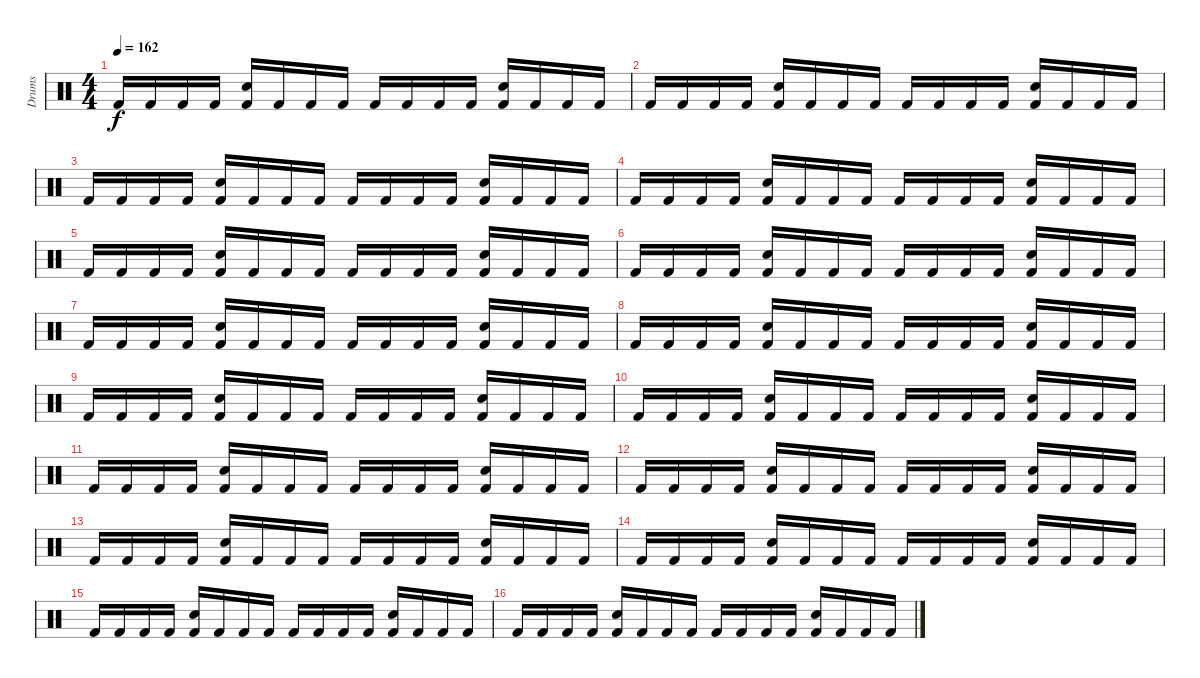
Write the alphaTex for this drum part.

\track ("Drums" "Drums") {instrument percussion}
\staff {score}
\articulation defaults
\ts (4 4)
\tempo 162
\clef neutral
\ks c "Kick (hit) 2".16{dy f} "Kick (hit) 2".16 "Kick (hit) 2".16 "Kick (hit) 2".16
("Electric Snare (hit)" "Kick (hit) 2").16 "Kick (hit) 2".16 "Kick (hit) 2".16 "Kick (hit) 2".16 "Kick (hit) 2".16 "Kick (hit) 2".16 "Kick (hit) 2".16 "Kick (hit) 2".16 ("Electric Snare (hit)" "Kick (hit) 2").16 "Kick (hit) 2".16 "Kick (hit) 2".16 "Kick (hit) 2".16 |
"Kick (hit) 2".16 "Kick (hit) 2".16 "Kick (hit) 2".16 "Kick (hit) 2".16 ("Electric Snare (hit)" "Kick (hit) 2").16 "Kick (hit) 2".16 "Kick (hit) 2".16 "Kick (hit) 2".16 "Kick (hit) 2".16 "Kick (hit) 2".16 "Kick (hit) 2".16 "Kick (hit) 2".16 ("Electric Snare (hit)" "Kick (hit) 2").16 "Kick (hit) 2".16 "Kick (hit) 2".16 "Kick (hit) 2".16 |
"Kick (hit) 2".16 "Kick (hit) 2".16 "Kick (hit) 2".16 "Kick (hit) 2".16 ("Electric Snare (hit)" "Kick (hit) 2").16 "Kick (hit) 2".16 "Kick (hit) 2".16 "Kick (hit) 2".16 "Kick (hit) 2".16 "Kick (hit) 2".16 "Kick (hit) 2".16 "Kick (hit) 2".16 ("Electric Snare (hit)" "Kick (hit) 2").16 "Kick (hit) 2".16 "Kick (hit) 2".16 "Kick (hit) 2".16 |
"Kick (hit) 2".16 "Kick (hit) 2".16 "Kick (hit) 2".16 "Kick (hit) 2".16 ("Electric Snare (hit)" "Kick (hit) 2").16 "Kick (hit) 2".16 "Kick (hit) 2".16 "Kick (hit) 2".16 "Kick (hit) 2".16 "Kick (hit) 2".16 "Kick (hit) 2".16 "Kick (hit) 2".16 ("Electric Snare (hit)" "Kick (hit) 2").16 "Kick (hit) 2".16 "Kick (hit) 2".16 "Kick (hit) 2".16 |
"Kick (hit) 2".16 "Kick (hit) 2".16 "Kick (hit) 2".16 "Kick (hit) 2".16 ("Electric Snare (hit)" "Kick (hit) 2").16 "Kick (hit) 2".16 "Kick (hit) 2".16 "Kick (hit) 2".16 "Kick (hit) 2".16 "Kick (hit) 2".16 "Kick (hit) 2".16 "Kick (hit) 2".16 ("Electric Snare (hit)" "Kick (hit) 2").16 "Kick (hit) 2".16 "Kick (hit) 2".16 "Kick (hit) 2".16 |
"Kick (hit) 2".16 "Kick (hit) 2".16 "Kick (hit) 2".16 "Kick (hit) 2".16 ("Electric Snare (hit)" "Kick (hit) 2").16 "Kick (hit) 2".16 "Kick (hit) 2".16 "Kick (hit) 2".16 "Kick (hit) 2".16 "Kick (hit) 2".16 "Kick (hit) 2".16 "Kick (hit) 2".16 ("Electric Snare (hit)" "Kick (hit) 2").16 "Kick (hit) 2".16 "Kick (hit) 2".16 "Kick (hit) 2".16 |
"Kick (hit) 2".16 "Kick (hit) 2".16 "Kick (hit) 2".16 "Kick (hit) 2".16 ("Electric Snare (hit)" "Kick (hit) 2").16 "Kick (hit) 2".16 "Kick (hit) 2".16 "Kick (hit) 2".16 "Kick (hit) 2".16 "Kick (hit) 2".16 "Kick (hit) 2".16 "Kick (hit) 2".16 ("Electric Snare (hit)" "Kick (hit) 2").16 "Kick (hit) 2".16 "Kick (hit) 2".16 "Kick (hit) 2".16 |
"Kick (hit) 2".16 "Kick (hit) 2".16 "Kick (hit) 2".16 "Kick (hit) 2".16 ("Electric Snare (hit)" "Kick (hit) 2").16 "Kick (hit) 2".16 "Kick (hit) 2".16 "Kick (hit) 2".16 "Kick (hit) 2".16 "Kick (hit) 2".16 "Kick (hit) 2".16 "Kick (hit) 2".16 ("Electric Snare (hit)" "Kick (hit) 2").16 "Kick (hit) 2".16 "Kick (hit) 2".16 "Kick (hit) 2".16 |
"Kick (hit) 2".16 "Kick (hit) 2".16 "Kick (hit) 2".16 "Kick (hit) 2".16 ("Electric Snare (hit)" "Kick (hit) 2").16 "Kick (hit) 2".16 "Kick (hit) 2".16 "Kick (hit) 2".16 "Kick (hit) 2".16 "Kick (hit) 2".16 "Kick (hit) 2".16 "Kick (hit) 2".16 ("Electric Snare (hit)" "Kick (hit) 2").16 "Kick (hit) 2".16 "Kick (hit) 2".16 "Kick (hit) 2".16 |
"Kick (hit) 2".16 "Kick (hit) 2".16 "Kick (hit) 2".16 "Kick (hit) 2".16 ("Electric Snare (hit)" "Kick (hit) 2").16 "Kick (hit) 2".16 "Kick (hit) 2".16 "Kick (hit) 2".16 "Kick (hit) 2".16 "Kick (hit) 2".16 "Kick (hit) 2".16 "Kick (hit) 2".16 ("Electric Snare (hit)" "Kick (hit) 2").16 "Kick (hit) 2".16 "Kick (hit) 2".16 "Kick (hit) 2".16 |
"Kick (hit) 2".16 "Kick (hit) 2".16 "Kick (hit) 2".16 "Kick (hit) 2".16 ("Electric Snare (hit)" "Kick (hit) 2").16 "Kick (hit) 2".16 "Kick (hit) 2".16 "Kick (hit) 2".16 "Kick (hit) 2".16 "Kick (hit) 2".16 "Kick (hit) 2".16 "Kick (hit) 2".16 ("Electric Snare (hit)" "Kick (hit) 2").16 "Kick (hit) 2".16 "Kick (hit) 2".16 "Kick (hit) 2".16 |
"Kick (hit) 2".16 "Kick (hit) 2".16 "Kick (hit) 2".16 "Kick (hit) 2".16 ("Electric Snare (hit)" "Kick (hit) 2").16 "Kick (hit) 2".16 "Kick (hit) 2".16 "Kick (hit) 2".16 "Kick (hit) 2".16 "Kick (hit) 2".16 "Kick (hit) 2".16 "Kick (hit) 2".16 ("Electric Snare (hit)" "Kick (hit) 2").16 "Kick (hit) 2".16 "Kick (hit) 2".16 "Kick (hit) 2".16 |
"Kick (hit) 2".16 "Kick (hit) 2".16 "Kick (hit) 2".16 "Kick (hit) 2".16 ("Electric Snare (hit)" "Kick (hit) 2").16 "Kick (hit) 2".16 "Kick (hit) 2".16 "Kick (hit) 2".16 "Kick (hit) 2".16 "Kick (hit) 2".16 "Kick (hit) 2".16 "Kick (hit) 2".16 ("Electric Snare (hit)" "Kick (hit) 2").16 "Kick (hit) 2".16 "Kick (hit) 2".16 "Kick (hit) 2".16 |
"Kick (hit) 2".16 "Kick (hit) 2".16 "Kick (hit) 2".16 "Kick (hit) 2".16 ("Electric Snare (hit)" "Kick (hit) 2").16 "Kick (hit) 2".16 "Kick (hit) 2".16 "Kick (hit) 2".16 "Kick (hit) 2".16 "Kick (hit) 2".16 "Kick (hit) 2".16 "Kick (hit) 2".16 ("Electric Snare (hit)" "Kick (hit) 2").16 "Kick (hit) 2".16 "Kick (hit) 2".16 "Kick (hit) 2".16 |
"Kick (hit) 2".16 "Kick (hit) 2".16 "Kick (hit) 2".16 "Kick (hit) 2".16 ("Electric Snare (hit)" "Kick (hit) 2").16 "Kick (hit) 2".16 "Kick (hit) 2".16 "Kick (hit) 2".16 "Kick (hit) 2".16 "Kick (hit) 2".16 "Kick (hit) 2".16 "Kick (hit) 2".16 ("Electric Snare (hit)" "Kick (hit) 2").16 "Kick (hit) 2".16 "Kick (hit) 2".16 "Kick (hit) 2".16 |
"Kick (hit) 2".16 "Kick (hit) 2".16 "Kick (hit) 2".16 "Kick (hit) 2".16 ("Electric Snare (hit)" "Kick (hit) 2").16 "Kick (hit) 2".16 "Kick (hit) 2".16 "Kick (hit) 2".16 "Kick (hit) 2".16 "Kick (hit) 2".16 "Kick (hit) 2".16 "Kick (hit) 2".16 ("Electric Snare (hit)" "Kick (hit) 2").16 "Kick (hit) 2".16 "Kick (hit) 2".16 "Kick (hit) 2".16
